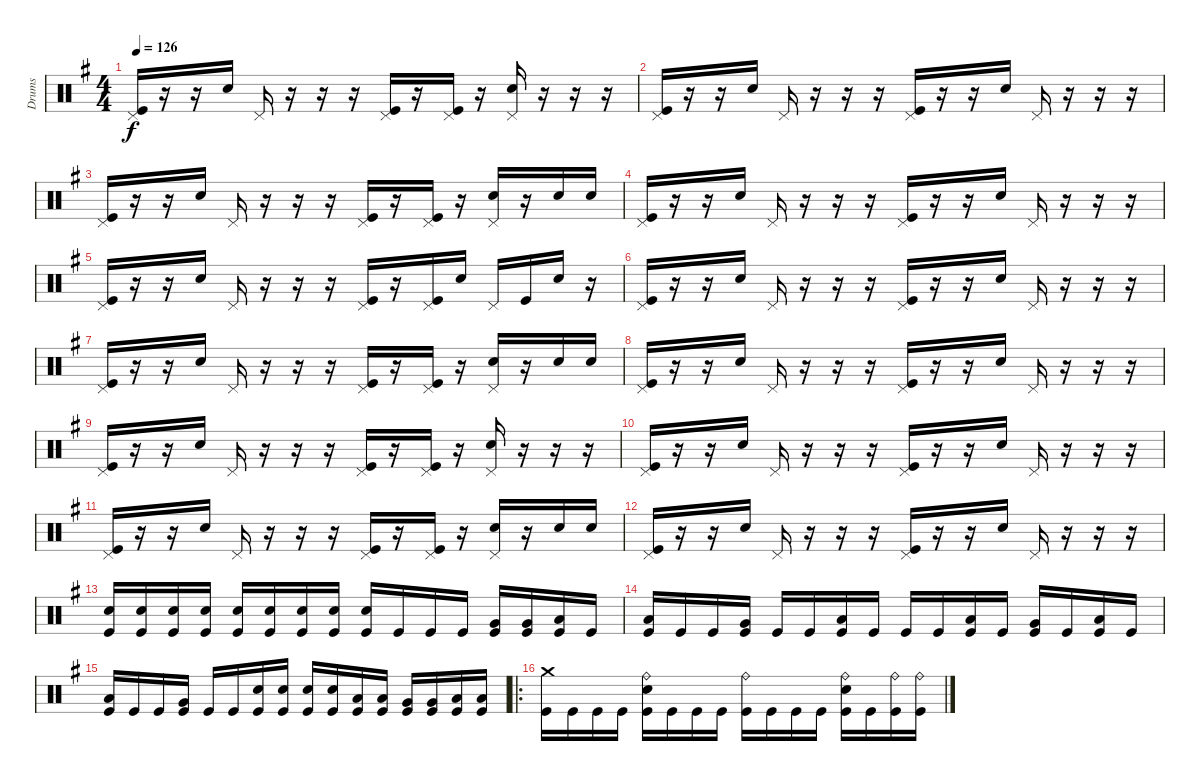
\track ("Drums" "Drums") {instrument percussion}
\staff {score}
\articulation defaults
\ts (4 4)
\tempo 126
\clef neutral
\ks g
("Kick (hit)" "Pedal Hi-Hat (hit)").16{dy f} r.16 r.16 "Electric Snare (hit)".16 "Pedal Hi-Hat (hit)".16 r.16 r.16 r.16 ("Kick (hit)" "Pedal Hi-Hat (hit)").16 r.16 ("Kick (hit)" "Pedal Hi-Hat (hit)").16 r.16 ("Electric Snare (hit)" "Pedal Hi-Hat (hit)").16 r.16 r.16 r.16 |
("Kick (hit)" "Pedal Hi-Hat (hit)").16 r.16 r.16 "Electric Snare (hit)".16 "Pedal Hi-Hat (hit)".16 r.16 r.16 r.16 ("Kick (hit)" "Pedal Hi-Hat (hit)").16 r.16 r.16 "Electric Snare (hit)".16 "Pedal Hi-Hat (hit)".16 r.16 r.16 r.16 |
("Kick (hit)" "Pedal Hi-Hat (hit)").16 r.16 r.16 "Electric Snare (hit)".16 "Pedal Hi-Hat (hit)".16 r.16 r.16 r.16 ("Kick (hit)" "Pedal Hi-Hat (hit)").16 r.16 ("Kick (hit)" "Pedal Hi-Hat (hit)").16 r.16 ("Electric Snare (hit)" "Pedal Hi-Hat (hit)").16 r.16 "Electric Snare (hit)".16 "Electric Snare (hit)".16 |
("Kick (hit)" "Pedal Hi-Hat (hit)").16 r.16 r.16 "Electric Snare (hit)".16 "Pedal Hi-Hat (hit)".16 r.16 r.16 r.16 ("Kick (hit)" "Pedal Hi-Hat (hit)").16 r.16 r.16 "Electric Snare (hit)".16 "Pedal Hi-Hat (hit)".16 r.16 r.16 r.16 |
("Kick (hit)" "Pedal Hi-Hat (hit)").16 r.16 r.16 "Electric Snare (hit)".16 "Pedal Hi-Hat (hit)".16 r.16 r.16 r.16 ("Kick (hit)" "Pedal Hi-Hat (hit)").16 r.16 ("Kick (hit)" "Pedal Hi-Hat (hit)").16 "Electric Snare (hit)".16 "Pedal Hi-Hat (hit)".16 "Kick (hit)".16 "Electric Snare (hit)".16 r.16 |
("Kick (hit)" "Pedal Hi-Hat (hit)").16 r.16 r.16 "Electric Snare (hit)".16 "Pedal Hi-Hat (hit)".16 r.16 r.16 r.16 ("Kick (hit)" "Pedal Hi-Hat (hit)").16 r.16 r.16 "Electric Snare (hit)".16 "Pedal Hi-Hat (hit)".16 r.16 r.16 r.16 |
("Kick (hit)" "Pedal Hi-Hat (hit)").16 r.16 r.16 "Electric Snare (hit)".16 "Pedal Hi-Hat (hit)".16 r.16 r.16 r.16 ("Kick (hit)" "Pedal Hi-Hat (hit)").16 r.16 ("Kick (hit)" "Pedal Hi-Hat (hit)").16 r.16 ("Electric Snare (hit)" "Pedal Hi-Hat (hit)").16 r.16 "Electric Snare (hit)".16 "Electric Snare (hit)".16 |
("Kick (hit)" "Pedal Hi-Hat (hit)").16 r.16 r.16 "Electric Snare (hit)".16 "Pedal Hi-Hat (hit)".16 r.16 r.16 r.16 ("Kick (hit)" "Pedal Hi-Hat (hit)").16 r.16 r.16 "Electric Snare (hit)".16 "Pedal Hi-Hat (hit)".16 r.16 r.16 r.16 |
("Kick (hit)" "Pedal Hi-Hat (hit)").16 r.16 r.16 "Electric Snare (hit)".16 "Pedal Hi-Hat (hit)".16 r.16 r.16 r.16 ("Kick (hit)" "Pedal Hi-Hat (hit)").16 r.16 ("Kick (hit)" "Pedal Hi-Hat (hit)").16 r.16 ("Electric Snare (hit)" "Pedal Hi-Hat (hit)").16 r.16 r.16 r.16 |
("Kick (hit)" "Pedal Hi-Hat (hit)").16 r.16 r.16 "Electric Snare (hit)".16 "Pedal Hi-Hat (hit)".16 r.16 r.16 r.16 ("Kick (hit)" "Pedal Hi-Hat (hit)").16 r.16 r.16 "Electric Snare (hit)".16 "Pedal Hi-Hat (hit)".16 r.16 r.16 r.16 |
("Kick (hit)" "Pedal Hi-Hat (hit)").16 r.16 r.16 "Electric Snare (hit)".16 "Pedal Hi-Hat (hit)".16 r.16 r.16 r.16 ("Kick (hit)" "Pedal Hi-Hat (hit)").16 r.16 ("Kick (hit)" "Pedal Hi-Hat (hit)").16 r.16 ("Electric Snare (hit)" "Pedal Hi-Hat (hit)").16 r.16 "Electric Snare (hit)".16 "Electric Snare (hit)".16 |
("Kick (hit)" "Pedal Hi-Hat (hit)").16 r.16 r.16 "Electric Snare (hit)".16 "Pedal Hi-Hat (hit)".16 r.16 r.16 r.16 ("Kick (hit)" "Pedal Hi-Hat (hit)").16 r.16 r.16 "Electric Snare (hit)".16 "Pedal Hi-Hat (hit)".16 r.16 r.16 r.16 |
("Kick (hit)" "Electric Snare (hit)").16 ("Kick (hit)" "Electric Snare (hit)").16 ("Kick (hit)" "Electric Snare (hit)").16 ("Kick (hit)" "Electric Snare (hit)").16 ("Kick (hit)" "Electric Snare (hit)").16 ("Kick (hit)" "Electric Snare (hit)").16 ("Kick (hit)" "Electric Snare (hit)").16 ("Kick (hit)" "Electric Snare (hit)").16 ("Kick (hit)" "Electric Snare (hit)").16 "Kick (hit)".16 "Kick (hit)".16 "Kick (hit)".16 ("Kick (hit)" "Very Low Tom (hit)").16 ("Kick (hit)" "Very Low Tom (hit)").16 ("Kick (hit)" "Low Floor Tom (hit)").16 "Kick (hit)".16 |
("Kick (hit)" "Low Tom (hit)").16 "Kick (hit)".16 "Kick (hit)".16 ("Kick (hit)" "Very Low Tom (hit)").16 "Kick (hit)".16 "Kick (hit)".16 ("Kick (hit)" "Low Floor Tom (hit)").16 "Kick (hit)".16 "Kick (hit)".16 "Kick (hit)".16 ("Kick (hit)" "Low Tom (hit)").16 "Kick (hit)".16 ("Kick (hit)" "Very Low Tom (hit)").16 "Kick (hit)".16 ("Kick (hit)" "Low Floor Tom (hit)").16 "Kick (hit)".16 |
("Kick (hit)" "Low Tom (hit)").16 "Kick (hit)".16 "Kick (hit)".16 ("Kick (hit)" "Very Low Tom (hit)").16 "Kick (hit)".16 "Kick (hit)".16 ("Kick (hit)" "Electric Snare (hit)").16 ("Kick (hit)" "Electric Snare (hit)").16 ("Kick (hit)" "Electric Snare (hit)").16 ("Kick (hit)" "Electric Snare (hit)").16 ("Kick (hit)" "Low Tom (hit)").16 ("Kick (hit)" "Low Tom (hit)").16 ("Kick (hit)" "Very Low Tom (hit)").16 ("Kick (hit)" "Very Low Tom (hit)").16 ("Kick (hit)" "Low Floor Tom (hit)").16 ("Kick (hit)" "Low Floor Tom (hit)").16 |
\ro
("Kick (hit)" "Crash medium (hit)").16 "Kick (hit)".16 "Kick (hit)".16 "Kick (hit)".16 ("Kick (hit)" "Electric Snare (hit)" "Ride (bell)").16 "Kick (hit)".16 "Kick (hit)".16 "Kick (hit)".16 ("Kick (hit)" "Ride (bell)").16 "Kick (hit)".16 "Kick (hit)".16 "Kick (hit)".16 ("Kick (hit)" "Electric Snare (hit)" "Ride (bell)").16 "Kick (hit)".16 ("Kick (hit)" "Ride (bell)").16 ("Kick (hit)" "Ride (bell)").16
